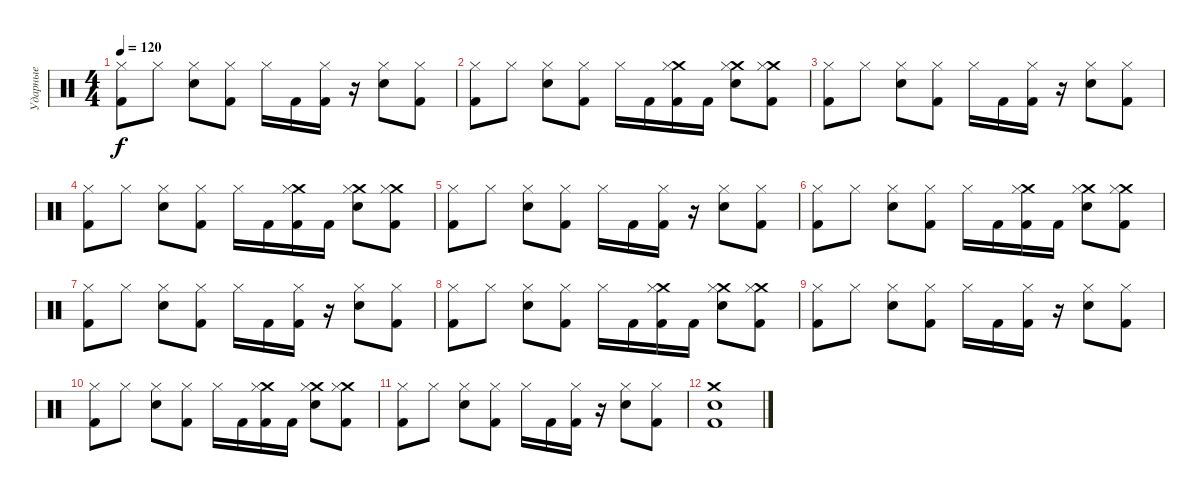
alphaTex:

\track ("Ударные" "Ударные") {instrument percussion}
\staff {score}
\articulation defaults
\ts (4 4)
\tempo 120
\clef neutral
\ks c
("Hi-Hat (closed)" "Kick (hit) 2").8{dy f} "Hi-Hat (closed)".8 ("Hi-Hat (closed)" "Electric Snare (hit)").8 ("Hi-Hat (closed)" "Kick (hit) 2").8 "Hi-Hat (closed)".16 "Kick (hit) 2".16 ("Hi-Hat (closed)" "Kick (hit) 2").16 r.16 ("Hi-Hat (closed)" "Electric Snare (hit)").8 ("Hi-Hat (closed)" "Kick (hit) 2").8 |
("Hi-Hat (closed)" "Kick (hit) 2").8 "Hi-Hat (closed)".8 ("Hi-Hat (closed)" "Electric Snare (hit)").8 ("Hi-Hat (closed)" "Kick (hit) 2").8 "Hi-Hat (closed)".16 "Kick (hit) 2".16 ("Crash medium (hit)" "Hi-Hat (closed)" "Kick (hit) 2").16 "Kick (hit) 2".16 ("Crash medium (hit)" "Hi-Hat (closed)" "Electric Snare (hit)").8 ("Crash medium (hit)" "Hi-Hat (closed)" "Kick (hit) 2").8 |
("Hi-Hat (closed)" "Kick (hit) 2").8 "Hi-Hat (closed)".8 ("Hi-Hat (closed)" "Electric Snare (hit)").8 ("Hi-Hat (closed)" "Kick (hit) 2").8 "Hi-Hat (closed)".16 "Kick (hit) 2".16 ("Hi-Hat (closed)" "Kick (hit) 2").16 r.16 ("Hi-Hat (closed)" "Electric Snare (hit)").8 ("Hi-Hat (closed)" "Kick (hit) 2").8 |
("Hi-Hat (closed)" "Kick (hit) 2").8 "Hi-Hat (closed)".8 ("Hi-Hat (closed)" "Electric Snare (hit)").8 ("Hi-Hat (closed)" "Kick (hit) 2").8 "Hi-Hat (closed)".16 "Kick (hit) 2".16 ("Crash medium (hit)" "Hi-Hat (closed)" "Kick (hit) 2").16 "Kick (hit) 2".16 ("Crash medium (hit)" "Hi-Hat (closed)" "Electric Snare (hit)").8 ("Crash medium (hit)" "Hi-Hat (closed)" "Kick (hit) 2").8 |
("Hi-Hat (closed)" "Kick (hit) 2").8 "Hi-Hat (closed)".8 ("Hi-Hat (closed)" "Electric Snare (hit)").8 ("Hi-Hat (closed)" "Kick (hit) 2").8 "Hi-Hat (closed)".16 "Kick (hit) 2".16 ("Hi-Hat (closed)" "Kick (hit) 2").16 r.16 ("Hi-Hat (closed)" "Electric Snare (hit)").8 ("Hi-Hat (closed)" "Kick (hit) 2").8 |
("Hi-Hat (closed)" "Kick (hit) 2").8 "Hi-Hat (closed)".8 ("Hi-Hat (closed)" "Electric Snare (hit)").8 ("Hi-Hat (closed)" "Kick (hit) 2").8 "Hi-Hat (closed)".16 "Kick (hit) 2".16 ("Crash medium (hit)" "Hi-Hat (closed)" "Kick (hit) 2").16 "Kick (hit) 2".16 ("Crash medium (hit)" "Hi-Hat (closed)" "Electric Snare (hit)").8 ("Crash medium (hit)" "Hi-Hat (closed)" "Kick (hit) 2").8 |
("Hi-Hat (closed)" "Kick (hit) 2").8 "Hi-Hat (closed)".8 ("Hi-Hat (closed)" "Electric Snare (hit)").8 ("Hi-Hat (closed)" "Kick (hit) 2").8 "Hi-Hat (closed)".16 "Kick (hit) 2".16 ("Hi-Hat (closed)" "Kick (hit) 2").16 r.16 ("Hi-Hat (closed)" "Electric Snare (hit)").8 ("Hi-Hat (closed)" "Kick (hit) 2").8 |
("Hi-Hat (closed)" "Kick (hit) 2").8 "Hi-Hat (closed)".8 ("Hi-Hat (closed)" "Electric Snare (hit)").8 ("Hi-Hat (closed)" "Kick (hit) 2").8 "Hi-Hat (closed)".16 "Kick (hit) 2".16 ("Crash medium (hit)" "Hi-Hat (closed)" "Kick (hit) 2").16 "Kick (hit) 2".16 ("Crash medium (hit)" "Hi-Hat (closed)" "Electric Snare (hit)").8 ("Crash medium (hit)" "Hi-Hat (closed)" "Kick (hit) 2").8 |
("Hi-Hat (closed)" "Kick (hit) 2").8 "Hi-Hat (closed)".8 ("Hi-Hat (closed)" "Electric Snare (hit)").8 ("Hi-Hat (closed)" "Kick (hit) 2").8 "Hi-Hat (closed)".16 "Kick (hit) 2".16 ("Hi-Hat (closed)" "Kick (hit) 2").16 r.16 ("Hi-Hat (closed)" "Electric Snare (hit)").8 ("Hi-Hat (closed)" "Kick (hit) 2").8 |
("Hi-Hat (closed)" "Kick (hit) 2").8 "Hi-Hat (closed)".8 ("Hi-Hat (closed)" "Electric Snare (hit)").8 ("Hi-Hat (closed)" "Kick (hit) 2").8 "Hi-Hat (closed)".16 "Kick (hit) 2".16 ("Crash medium (hit)" "Hi-Hat (closed)" "Kick (hit) 2").16 "Kick (hit) 2".16 ("Crash medium (hit)" "Hi-Hat (closed)" "Electric Snare (hit)").8 ("Crash medium (hit)" "Hi-Hat (closed)" "Kick (hit) 2").8 |
("Hi-Hat (closed)" "Kick (hit) 2").8 "Hi-Hat (closed)".8 ("Hi-Hat (closed)" "Electric Snare (hit)").8 ("Hi-Hat (closed)" "Kick (hit) 2").8 "Hi-Hat (closed)".16 "Kick (hit) 2".16 ("Hi-Hat (closed)" "Kick (hit) 2").16 r.16 ("Hi-Hat (closed)" "Electric Snare (hit)").8 ("Hi-Hat (closed)" "Kick (hit) 2").8 |
("Crash medium (hit)" "Kick (hit) 2" "Electric Snare (hit)").1
